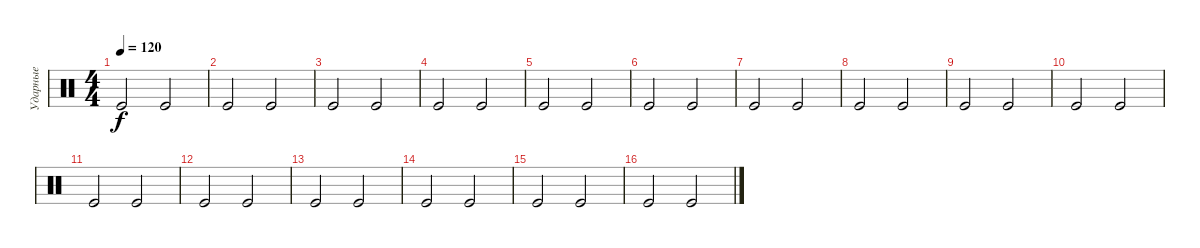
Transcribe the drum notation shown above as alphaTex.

\track ("Ударные" "Ударные") {instrument percussion}
\staff {score}
\articulation defaults
\ts (4 4)
\tempo 120
\clef neutral
\ks c "Kick (hit)".2{dy f} "Kick (hit)".2
|
"Kick (hit)".2 "Kick (hit)".2 |
"Kick (hit)".2 "Kick (hit)".2 |
"Kick (hit)".2 "Kick (hit)".2 |
"Kick (hit)".2 "Kick (hit)".2 |
"Kick (hit)".2 "Kick (hit)".2 |
"Kick (hit)".2 "Kick (hit)".2 |
"Kick (hit)".2 "Kick (hit)".2 |
"Kick (hit)".2 "Kick (hit)".2 |
"Kick (hit)".2 "Kick (hit)".2 |
"Kick (hit)".2 "Kick (hit)".2 |
"Kick (hit)".2 "Kick (hit)".2 |
"Kick (hit)".2 "Kick (hit)".2 |
"Kick (hit)".2 "Kick (hit)".2 |
"Kick (hit)".2 "Kick (hit)".2 |
"Kick (hit)".2 "Kick (hit)".2
